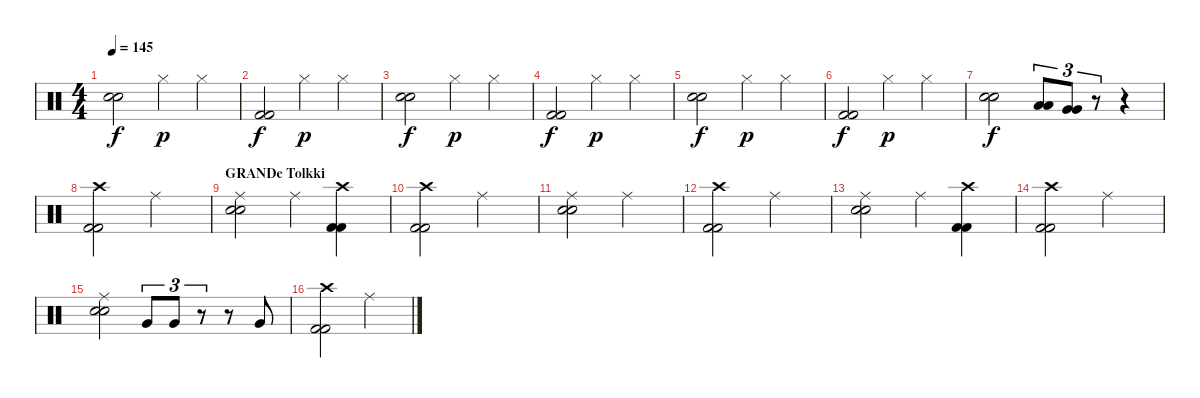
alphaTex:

\track "" {instrument percussion}
\staff {score}
\articulation defaults
\ts (4 4)
\tempo 145
\clef neutral
\ks c
("Snare (hit) 2" "Snare (hit) 2").2{dy f} "Hi-Hat (closed)".4{dy p} "Hi-Hat (closed)".4 |
("Kick (hit) 2" "Kick (hit) 2").2{dy f} "Hi-Hat (closed)".4{dy p} "Hi-Hat (closed)".4 |
("Snare (hit) 2" "Snare (hit) 2").2{dy f} "Hi-Hat (closed)".4{dy p} "Hi-Hat (closed)".4 |
("Kick (hit) 2" "Kick (hit) 2").2{dy f} "Hi-Hat (closed)".4{dy p} "Hi-Hat (closed)".4 |
("Snare (hit) 2" "Snare (hit) 2").2{dy f} "Hi-Hat (closed)".4{dy p} "Hi-Hat (closed)".4 |
("Kick (hit) 2" "Kick (hit) 2").2{dy f} "Hi-Hat (closed)".4{dy p} "Hi-Hat (closed)".4 |
("Snare (hit) 2" "Snare (hit) 2").2{dy f} ("Low Tom (hit)" "Low Tom (hit)").8{tu (3 2)} ("Very Low Tom (hit)" "Very Low Tom (hit)").8{tu (3 2)} r.8{tu (3 2)} r.4 |
("Crash high (hit)" "Kick (hit) 2" "Kick (hit) 2").2 "Ride (middle)".2 |
\section ("" "GRANDe Tolkki")
("Ride (middle)" "Snare (hit) 2" "Snare (hit) 2").2 "Ride (middle)".4 ("Crash high (hit)" "Kick (hit) 2" "Kick (hit) 2").4 |
("Crash high (hit)" "Kick (hit) 2" "Kick (hit) 2").2 "Ride (middle)".2 |
("Ride (middle)" "Snare (hit) 2" "Snare (hit) 2").2 "Ride (middle)".2 |
("Crash high (hit)" "Kick (hit) 2" "Kick (hit) 2").2 "Ride (middle)".2 |
("Ride (middle)" "Snare (hit) 2" "Snare (hit) 2").2 "Ride (middle)".4 ("Crash high (hit)" "Kick (hit) 2" "Kick (hit) 2").4 |
("Crash high (hit)" "Kick (hit) 2" "Kick (hit) 2").2 "Ride (middle)".2 |
("Ride (middle)" "Snare (hit) 2" "Snare (hit) 2").2 "Very Low Tom (hit)".8{tu (3 2)} "Very Low Tom (hit)".8{tu (3 2)} r.8{tu (3 2)} r.8 "Very Low Tom (hit)".8 |
("Crash high (hit)" "Kick (hit) 2" "Kick (hit) 2").2 "Ride (middle)".2
